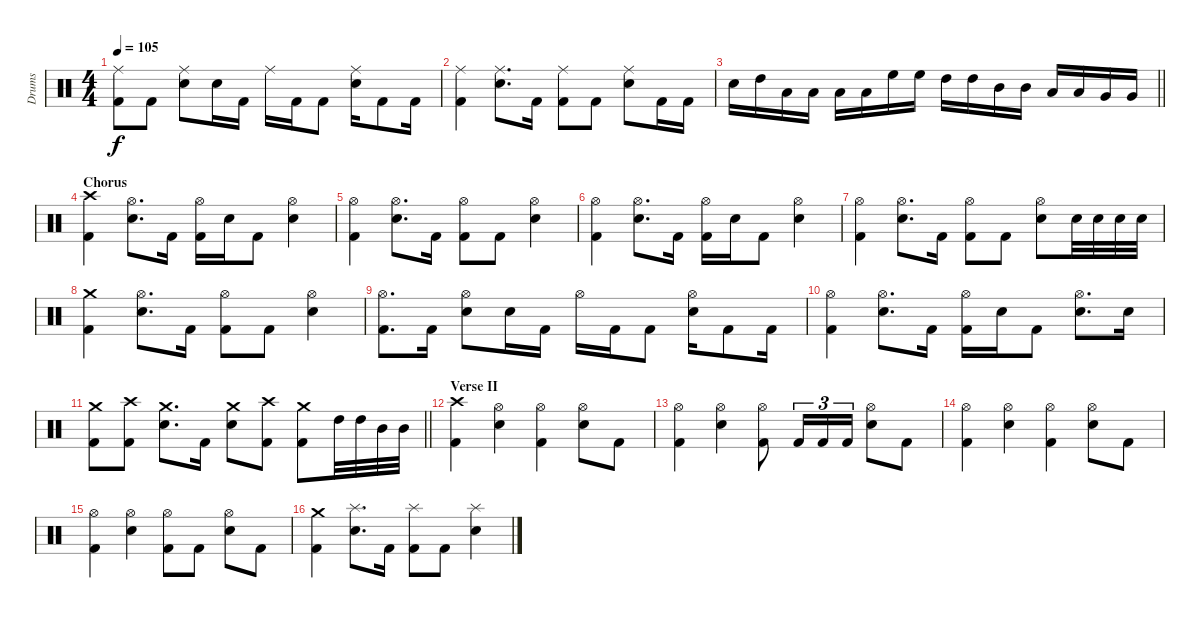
\track ("Drums" "Drums") {instrument percussion}
\staff {score}
\articulation defaults
\ts (4 4)
\tempo 105
\clef neutral
\ks c
("Ride (middle)" "Kick (hit) 2").8{dy f} "Kick (hit) 2".8 ("Ride (middle)" "Snare (hit) 2").8 "Snare (hit) 2".16 "Kick (hit) 2".16 "Ride (middle)".16 "Kick (hit) 2".16 "Kick (hit) 2".8 ("Ride (middle)" "Snare (hit) 2").16 "Kick (hit) 2".8 "Kick (hit) 2".16 |
("Ride (middle)" "Kick (hit) 2").4 ("Ride (middle)" "Snare (hit) 2").8{d} "Kick (hit) 2".16 ("Ride (middle)" "Kick (hit) 2").8 "Kick (hit) 2".8 ("Ride (middle)" "Snare (hit) 2").8 "Kick (hit) 2".16 "Kick (hit) 2".16 |
\barLineRight lightlight "Snare (hit) 2".16 "High Tom (hit)".16 "Low Tom (hit)".16 "Low Tom (hit)".16 "Low Tom (hit)".16 "Low Tom (hit)".16 "High Floor Tom (hit)".16 "High Floor Tom (hit)".16 "High Tom (hit)".16 "High Tom (hit)".16 "Mid Tom (hit)".16 "Mid Tom (hit)".16 "Low Tom (hit)".16 "Low Tom (hit)".16 "Very Low Tom (hit)".16 "Very Low Tom (hit)".16
|
\section ("" "Chorus")
("Crash high (hit)" "Kick (hit) 2").4 ("Hi-Hat (open)" "Snare (hit) 2").8{d} "Kick (hit) 2".16 ("Hi-Hat (open)" "Kick (hit) 2").16 "Snare (hit) 2".16 "Kick (hit) 2".8 ("Hi-Hat (open)" "Snare (hit) 2").4 |
("Hi-Hat (open)" "Kick (hit) 2").4 ("Hi-Hat (open)" "Snare (hit) 2").8{d} "Kick (hit) 2".16 ("Hi-Hat (open)" "Kick (hit) 2").8 "Kick (hit) 2".8 ("Hi-Hat (open)" "Snare (hit) 2").4 |
("Hi-Hat (open)" "Kick (hit) 2").4 ("Hi-Hat (open)" "Snare (hit) 2").8{d} "Kick (hit) 2".16 ("Hi-Hat (open)" "Kick (hit) 2").16 "Snare (hit) 2".16 "Kick (hit) 2".8 ("Hi-Hat (open)" "Snare (hit) 2").4 |
("Hi-Hat (open)" "Kick (hit) 2").4 ("Hi-Hat (open)" "Snare (hit) 2").8{d} "Kick (hit) 2".16 ("Hi-Hat (open)" "Kick (hit) 2").8 "Kick (hit) 2".8 ("Hi-Hat (open)" "Snare (hit) 2").8 "Snare (hit) 2".32 "Snare (hit) 2".32 "Snare (hit) 2".32 "Snare (hit) 2".32 |
("Crash medium (hit)" "Kick (hit) 2").4 ("Hi-Hat (open)" "Snare (hit) 2").8{d} "Kick (hit) 2".16 ("Hi-Hat (open)" "Kick (hit) 2").8 "Kick (hit) 2".8 ("Hi-Hat (open)" "Snare (hit) 2").4 |
("Hi-Hat (open)" "Kick (hit) 2").8{d} "Kick (hit) 2".16 ("Hi-Hat (open)" "Snare (hit) 2").8 "Snare (hit) 2".16 "Kick (hit) 2".16 "Hi-Hat (open)".16 "Kick (hit) 2".16 "Kick (hit) 2".8 ("Hi-Hat (open)" "Snare (hit) 2").16 "Kick (hit) 2".8 "Kick (hit) 2".16 |
("Hi-Hat (open)" "Kick (hit) 2").4 ("Hi-Hat (open)" "Snare (hit) 2").8{d} "Kick (hit) 2".16 ("Hi-Hat (open)" "Kick (hit) 2").16 "Snare (hit) 2".16 "Kick (hit) 2".8 ("Hi-Hat (open)" "Snare (hit) 2").8{d} "Snare (hit) 2".16 |
\barLineRight lightlight
("Crash medium (hit)" "Kick (hit) 2").8 ("Crash high (hit)" "Kick (hit) 2").8 ("Crash medium (hit)" "Snare (hit) 2").8{d} "Kick (hit) 2".16 ("Crash medium (hit)" "Snare (hit) 2").8 ("Crash high (hit)" "Kick (hit) 2").8 ("Crash medium (hit)" "Kick (hit) 2").8 "High Tom (hit)".32 "High Tom (hit)".32 "Mid Tom (hit)".32 "Mid Tom (hit)".32 |
\section ("" "Verse II")
("Crash high (hit)" "Kick (hit) 2").4 ("Hi-Hat (open)" "Snare (hit) 2").4 ("Hi-Hat (open)" "Kick (hit) 2").4 ("Hi-Hat (open)" "Snare (hit) 2").8 "Kick (hit) 2".8 |
("Hi-Hat (open)" "Kick (hit) 2").4 ("Hi-Hat (open)" "Snare (hit) 2").4 ("Hi-Hat (open)" "Kick (hit) 2").8 "Kick (hit) 2".16{tu (3 2)} "Kick (hit) 2".16{tu (3 2)} "Kick (hit) 2".16{tu (3 2)} ("Hi-Hat (open)" "Snare (hit) 2").8 "Kick (hit) 2".8 |
("Hi-Hat (open)" "Kick (hit) 2").4 ("Hi-Hat (open)" "Snare (hit) 2").4 ("Hi-Hat (open)" "Kick (hit) 2").4 ("Hi-Hat (open)" "Snare (hit) 2").8 "Kick (hit) 2".8 |
("Hi-Hat (open)" "Kick (hit) 2").4 ("Hi-Hat (open)" "Snare (hit) 2").4 ("Hi-Hat (open)" "Kick (hit) 2").8 "Kick (hit) 2".8 ("Hi-Hat (open)" "Snare (hit) 2").8 "Kick (hit) 2".8 |
("Crash medium (hit)" "Kick (hit) 2").4 ("Splash (hit)" "Snare (hit) 2").8{d} "Kick (hit) 2".16 ("Splash (hit)" "Kick (hit) 2").8 "Kick (hit) 2".8 ("Splash (hit)" "Snare (hit) 2").4
